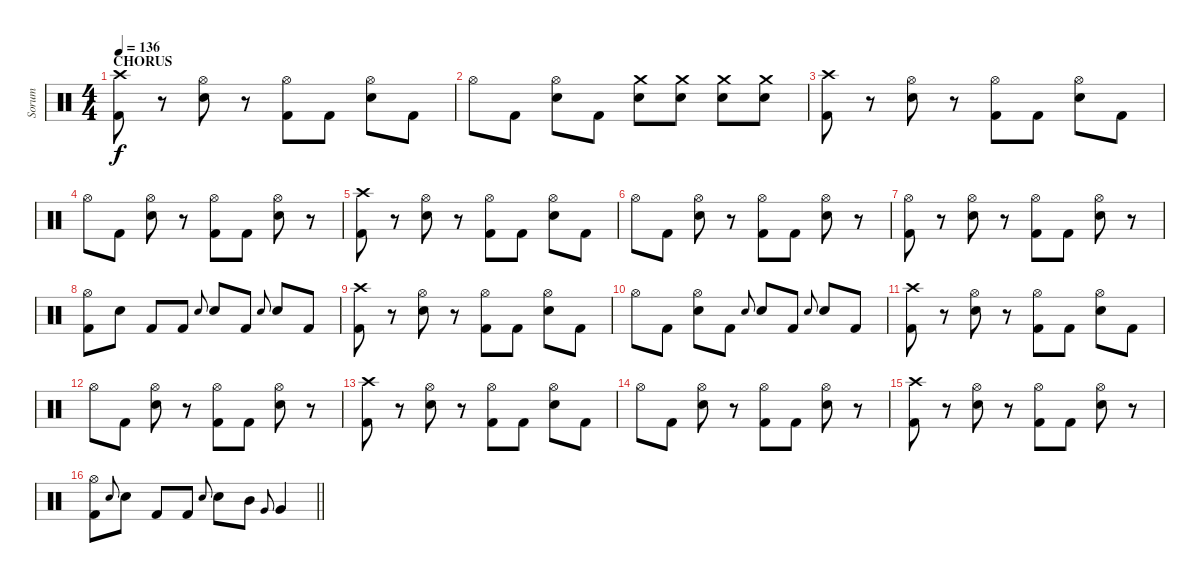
\track ("Sorum" "Sorum") {instrument percussion}
\staff {score}
\articulation defaults
\ts (4 4)
\section ("" "CHORUS")
\tempo 136
\clef neutral
\ks c
("Crash high (hit)" "Kick (hit) 2").8{dy f} r.8 ("Electric Snare (hit)" "Hi-Hat (open)").8 r.8 ("Kick (hit) 2" "Hi-Hat (open)").8 "Kick (hit) 2".8 ("Electric Snare (hit)" "Hi-Hat (open)").8 "Kick (hit) 2".8 |
"Hi-Hat (open)".8 "Kick (hit) 2".8 ("Electric Snare (hit)" "Hi-Hat (open)").8 "Kick (hit) 2".8 ("Crash medium (hit)" "Electric Snare (hit)").8 ("Crash medium (hit)" "Electric Snare (hit)").8 ("Crash medium (hit)" "Electric Snare (hit)").8 ("Crash medium (hit)" "Electric Snare (hit)").8 |
("Crash high (hit)" "Kick (hit) 2").8 r.8 ("Electric Snare (hit)" "Hi-Hat (open)").8 r.8 ("Kick (hit) 2" "Hi-Hat (open)").8 "Kick (hit) 2".8 ("Electric Snare (hit)" "Hi-Hat (open)").8 "Kick (hit) 2".8 |
"Hi-Hat (open)".8 "Kick (hit) 2".8 ("Electric Snare (hit)" "Hi-Hat (open)").8 r.8 ("Kick (hit) 2" "Hi-Hat (open)").8 "Kick (hit) 2".8 ("Electric Snare (hit)" "Hi-Hat (open)").8 r.8 |
("Crash high (hit)" "Kick (hit) 2").8 r.8 ("Electric Snare (hit)" "Hi-Hat (open)").8 r.8 ("Kick (hit) 2" "Hi-Hat (open)").8 "Kick (hit) 2".8 ("Electric Snare (hit)" "Hi-Hat (open)").8 "Kick (hit) 2".8 |
"Hi-Hat (open)".8 "Kick (hit) 2".8 ("Electric Snare (hit)" "Hi-Hat (open)").8 r.8 ("Kick (hit) 2" "Hi-Hat (open)").8 "Kick (hit) 2".8 ("Electric Snare (hit)" "Hi-Hat (open)").8 r.8 |
("Kick (hit) 2" "Hi-Hat (open)").8 r.8 ("Electric Snare (hit)" "Hi-Hat (open)").8 r.8 ("Kick (hit) 2" "Hi-Hat (open)").8 "Kick (hit) 2".8 ("Electric Snare (hit)" "Hi-Hat (open)").8 r.8 |
("Kick (hit) 2" "Hi-Hat (open)").8 "Electric Snare (hit)".8 "Kick (hit) 2".8 "Kick (hit) 2".8 "Electric Snare (hit)".8{gr onbeat} "Electric Snare (hit)".8 "Kick (hit) 2".8 "Electric Snare (hit)".8{gr onbeat} "Electric Snare (hit)".8 "Kick (hit) 2".8 |
("Crash high (hit)" "Kick (hit) 2").8 r.8 ("Electric Snare (hit)" "Hi-Hat (open)").8 r.8 ("Kick (hit) 2" "Hi-Hat (open)").8 "Kick (hit) 2".8 ("Electric Snare (hit)" "Hi-Hat (open)").8 "Kick (hit) 2".8 |
"Hi-Hat (open)".8 "Kick (hit) 2".8 ("Electric Snare (hit)" "Hi-Hat (open)").8 "Kick (hit) 2".8 "Electric Snare (hit)".8{gr onbeat} "Electric Snare (hit)".8 "Kick (hit) 2".8 "Electric Snare (hit)".8{gr onbeat} "Electric Snare (hit)".8 "Kick (hit) 2".8 |
("Crash high (hit)" "Kick (hit) 2").8 r.8 ("Electric Snare (hit)" "Hi-Hat (open)").8 r.8 ("Kick (hit) 2" "Hi-Hat (open)").8 "Kick (hit) 2".8 ("Electric Snare (hit)" "Hi-Hat (open)").8 "Kick (hit) 2".8 |
"Hi-Hat (open)".8 "Kick (hit) 2".8 ("Electric Snare (hit)" "Hi-Hat (open)").8 r.8 ("Kick (hit) 2" "Hi-Hat (open)").8 "Kick (hit) 2".8 ("Electric Snare (hit)" "Hi-Hat (open)").8 r.8 |
("Crash high (hit)" "Kick (hit) 2").8 r.8 ("Electric Snare (hit)" "Hi-Hat (open)").8 r.8 ("Kick (hit) 2" "Hi-Hat (open)").8 "Kick (hit) 2".8 ("Electric Snare (hit)" "Hi-Hat (open)").8 "Kick (hit) 2".8 |
"Hi-Hat (open)".8 "Kick (hit) 2".8 ("Electric Snare (hit)" "Hi-Hat (open)").8 r.8 ("Kick (hit) 2" "Hi-Hat (open)").8 "Kick (hit) 2".8 ("Electric Snare (hit)" "Hi-Hat (open)").8 r.8 |
("Crash high (hit)" "Kick (hit) 2").8 r.8 ("Electric Snare (hit)" "Hi-Hat (open)").8 r.8 ("Kick (hit) 2" "Hi-Hat (open)").8 "Kick (hit) 2".8 ("Electric Snare (hit)" "Hi-Hat (open)").8 r.8 |
\barLineRight lightlight
("Kick (hit) 2" "Hi-Hat (open)").8 "Electric Snare (hit)".8{gr onbeat} "Electric Snare (hit)".8 "Kick (hit) 2".8 "Kick (hit) 2".8 "Electric Snare (hit)".8{gr onbeat} "Electric Snare (hit)".8 "Mid Tom (hit)".8 "Very Low Tom (hit)".8{gr onbeat} "Very Low Tom (hit)".4
